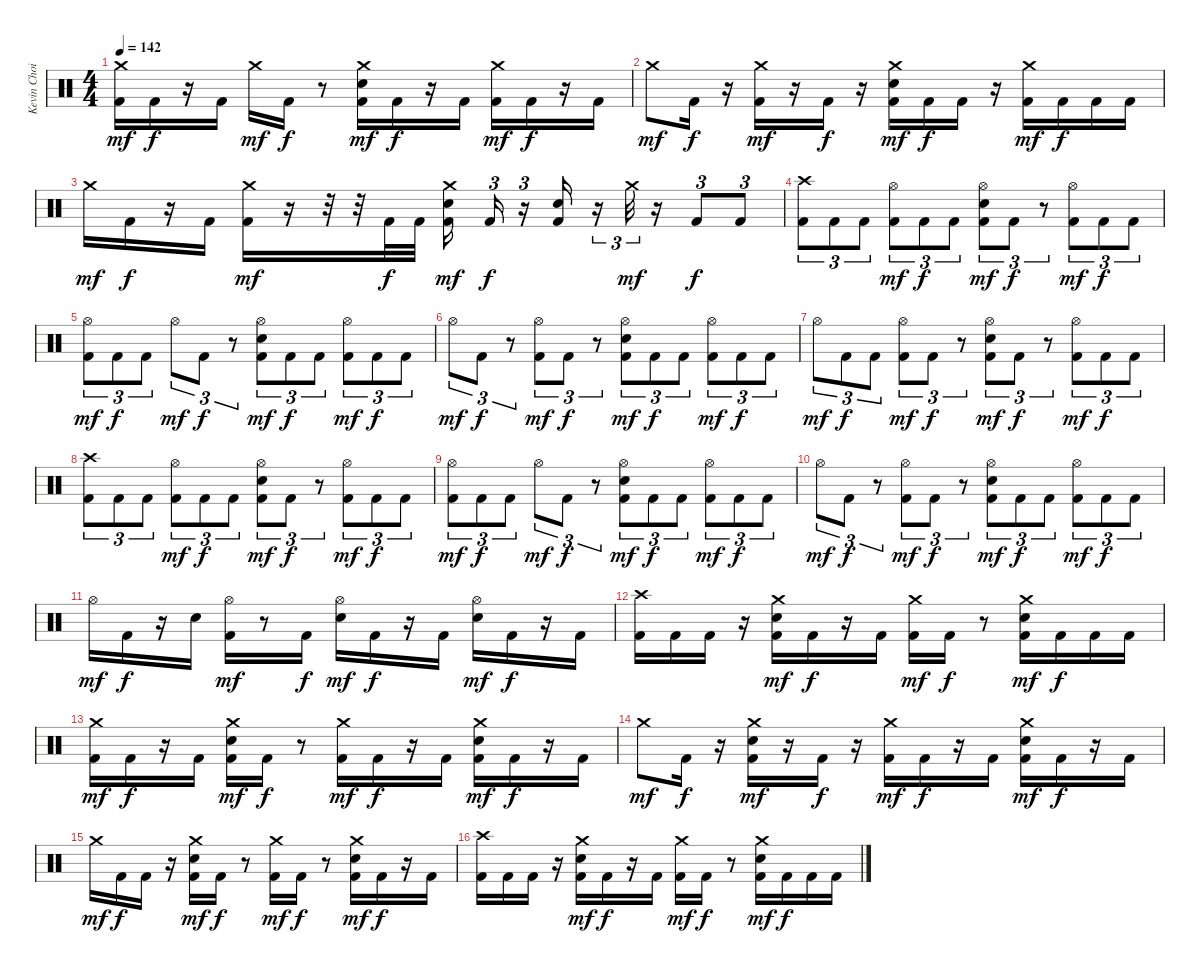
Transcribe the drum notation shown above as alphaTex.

\track ("Kevin Choiral" "Kevin Choi") {instrument percussion}
\staff
\articulation defaults
\ts (4 4)
\tempo 142
\clef neutral
\ks c
("Crash medium (hit)" "Kick (hit) 2").16{dy mf} "Kick (hit) 2".16{dy f} r.16 "Kick (hit) 2".16 "Crash medium (hit)".16{dy mf} "Kick (hit) 2".16{dy f} r.8 ("Crash medium (hit)" "Electric Snare (hit)" "Kick (hit) 2").16{dy mf} "Kick (hit) 2".16{dy f} r.16 "Kick (hit) 2".16 ("Crash medium (hit)" "Kick (hit) 2").16{dy mf} "Kick (hit) 2".16{dy f} r.16 "Kick (hit) 2".16 |
"Crash medium (hit)".8{dy mf} "Kick (hit) 2".16{dy f} r.16 ("Crash medium (hit)" "Kick (hit) 2").16{dy mf} r.16 "Kick (hit) 2".16{dy f} r.16 ("Crash medium (hit)" "Electric Snare (hit)" "Kick (hit) 2").16{dy mf} "Kick (hit) 2".16{dy f} "Kick (hit) 2".16 r.16 ("Crash medium (hit)" "Kick (hit) 2").16{dy mf} "Kick (hit) 2".16{dy f} "Kick (hit) 2".16 "Kick (hit) 2".16 |
"Crash medium (hit)".16{dy mf} "Kick (hit) 2".16{dy f} r.16 "Kick (hit) 2".16 ("Crash medium (hit)" "Kick (hit) 2").16{dy mf} r.16 r.32 r.32 "Kick (hit) 2".32{dy f} "Kick (hit) 2".32 ("Crash medium (hit)" "Electric Snare (hit)" "Kick (hit) 2").16{dy mf} "Kick (hit) 2".16{tu (3 2) dy f} r.16{tu (3 2)} ("Electric Snare (hit)" "Kick (hit) 2").16 r.16{tu (3 2)} "Crash medium (hit)".32{tu (3 2) dy mf} r.16 "Kick (hit) 2".8{tu (3 2) dy f} "Kick (hit) 2".8{tu (3 2)} |
("Crash high (hit)" "Kick (hit) 2").8{tu (3 2)} "Kick (hit) 2".8{tu (3 2)} "Kick (hit) 2".8{tu (3 2)} ("Hi-Hat (open)" "Kick (hit) 2").8{tu (3 2) dy mf} "Kick (hit) 2".8{tu (3 2) dy f} "Kick (hit) 2".8{tu (3 2)} ("Hi-Hat (open)" "Electric Snare (hit)" "Kick (hit) 2").8{tu (3 2) dy mf} "Kick (hit) 2".8{tu (3 2) dy f} r.8{tu (3 2)} ("Hi-Hat (open)" "Kick (hit) 2").8{tu (3 2) dy mf} "Kick (hit) 2".8{tu (3 2) dy f} "Kick (hit) 2".8{tu (3 2)} |
("Hi-Hat (open)" "Kick (hit) 2").8{tu (3 2) dy mf} "Kick (hit) 2".8{tu (3 2) dy f} "Kick (hit) 2".8{tu (3 2)} "Hi-Hat (open)".8{tu (3 2) dy mf} "Kick (hit) 2".8{tu (3 2) dy f} r.8{tu (3 2)} ("Hi-Hat (open)" "Electric Snare (hit)" "Kick (hit) 2").8{tu (3 2) dy mf} "Kick (hit) 2".8{tu (3 2) dy f} "Kick (hit) 2".8{tu (3 2)} ("Hi-Hat (open)" "Kick (hit) 2").8{tu (3 2) dy mf} "Kick (hit) 2".8{tu (3 2) dy f} "Kick (hit) 2".8{tu (3 2)} |
"Hi-Hat (open)".8{tu (3 2) dy mf} "Kick (hit) 2".8{tu (3 2) dy f} r.8{tu (3 2)} ("Hi-Hat (open)" "Kick (hit) 2").8{tu (3 2) dy mf} "Kick (hit) 2".8{tu (3 2) dy f} r.8{tu (3 2)} ("Hi-Hat (open)" "Electric Snare (hit)" "Kick (hit) 2").8{tu (3 2) dy mf} "Kick (hit) 2".8{tu (3 2) dy f} "Kick (hit) 2".8{tu (3 2)} ("Hi-Hat (open)" "Kick (hit) 2").8{tu (3 2) dy mf} "Kick (hit) 2".8{tu (3 2) dy f} "Kick (hit) 2".8{tu (3 2)} |
"Hi-Hat (open)".8{tu (3 2) dy mf} "Kick (hit) 2".8{tu (3 2) dy f} "Kick (hit) 2".8{tu (3 2)} ("Hi-Hat (open)" "Kick (hit) 2").8{tu (3 2) dy mf} "Kick (hit) 2".8{tu (3 2) dy f} r.8{tu (3 2)} ("Hi-Hat (open)" "Electric Snare (hit)" "Kick (hit) 2").8{tu (3 2) dy mf} "Kick (hit) 2".8{tu (3 2) dy f} r.8{tu (3 2)} ("Hi-Hat (open)" "Kick (hit) 2").8{tu (3 2) dy mf} "Kick (hit) 2".8{tu (3 2) dy f} "Kick (hit) 2".8{tu (3 2)} |
("Crash high (hit)" "Kick (hit) 2").8{tu (3 2)} "Kick (hit) 2".8{tu (3 2)} "Kick (hit) 2".8{tu (3 2)} ("Hi-Hat (open)" "Kick (hit) 2").8{tu (3 2) dy mf} "Kick (hit) 2".8{tu (3 2) dy f} "Kick (hit) 2".8{tu (3 2)} ("Hi-Hat (open)" "Electric Snare (hit)" "Kick (hit) 2").8{tu (3 2) dy mf} "Kick (hit) 2".8{tu (3 2) dy f} r.8{tu (3 2)} ("Hi-Hat (open)" "Kick (hit) 2").8{tu (3 2) dy mf} "Kick (hit) 2".8{tu (3 2) dy f} "Kick (hit) 2".8{tu (3 2)} |
("Hi-Hat (open)" "Kick (hit) 2").8{tu (3 2) dy mf} "Kick (hit) 2".8{tu (3 2) dy f} "Kick (hit) 2".8{tu (3 2)} "Hi-Hat (open)".8{tu (3 2) dy mf} "Kick (hit) 2".8{tu (3 2) dy f} r.8{tu (3 2)} ("Hi-Hat (open)" "Electric Snare (hit)" "Kick (hit) 2").8{tu (3 2) dy mf} "Kick (hit) 2".8{tu (3 2) dy f} "Kick (hit) 2".8{tu (3 2)} ("Hi-Hat (open)" "Kick (hit) 2").8{tu (3 2) dy mf} "Kick (hit) 2".8{tu (3 2) dy f} "Kick (hit) 2".8{tu (3 2)} |
"Hi-Hat (open)".8{tu (3 2) dy mf} "Kick (hit) 2".8{tu (3 2) dy f} r.8{tu (3 2)} ("Hi-Hat (open)" "Kick (hit) 2").8{tu (3 2) dy mf} "Kick (hit) 2".8{tu (3 2) dy f} r.8{tu (3 2)} ("Hi-Hat (open)" "Electric Snare (hit)" "Kick (hit) 2").8{tu (3 2) dy mf} "Kick (hit) 2".8{tu (3 2) dy f} "Kick (hit) 2".8{tu (3 2)} ("Hi-Hat (open)" "Kick (hit) 2").8{tu (3 2) dy mf} "Kick (hit) 2".8{tu (3 2) dy f} "Kick (hit) 2".8{tu (3 2)} |
"Hi-Hat (open)".16{dy mf} "Kick (hit) 2".16{dy f} r.16 "Electric Snare (hit)".16 ("Hi-Hat (open)" "Kick (hit) 2").16{dy mf} r.8 "Kick (hit) 2".16{dy f} ("Hi-Hat (open)" "Electric Snare (hit)").16{dy mf} "Kick (hit) 2".16{dy f} r.16 "Kick (hit) 2".16 ("Hi-Hat (open)" "Electric Snare (hit)").16{dy mf} "Kick (hit) 2".16{dy f} r.16 "Kick (hit) 2".16 |
("Crash high (hit)" "Kick (hit) 2").16 "Kick (hit) 2".16 "Kick (hit) 2".16 r.16 ("Crash medium (hit)" "Electric Snare (hit)" "Kick (hit) 2").16{dy mf} "Kick (hit) 2".16{dy f} r.16 "Kick (hit) 2".16 ("Crash medium (hit)" "Kick (hit) 2").16{dy mf} "Kick (hit) 2".16{dy f} r.8 ("Crash medium (hit)" "Electric Snare (hit)" "Kick (hit) 2").16{dy mf} "Kick (hit) 2".16{dy f} "Kick (hit) 2".16 "Kick (hit) 2".16 |
("Crash medium (hit)" "Kick (hit) 2").16{dy mf} "Kick (hit) 2".16{dy f} r.16 "Kick (hit) 2".16 ("Crash medium (hit)" "Electric Snare (hit)" "Kick (hit) 2").16{dy mf} "Kick (hit) 2".16{dy f} r.8 ("Crash medium (hit)" "Kick (hit) 2").16{dy mf} "Kick (hit) 2".16{dy f} r.16 "Kick (hit) 2".16 ("Crash medium (hit)" "Electric Snare (hit)" "Kick (hit) 2").16{dy mf} "Kick (hit) 2".16{dy f} r.16 "Kick (hit) 2".16 |
"Crash medium (hit)".8{dy mf} "Kick (hit) 2".16{dy f} r.16 ("Crash medium (hit)" "Electric Snare (hit)" "Kick (hit) 2").16{dy mf} r.16 "Kick (hit) 2".16{dy f} r.16 ("Crash medium (hit)" "Kick (hit) 2").16{dy mf} "Kick (hit) 2".16{dy f} r.16 "Kick (hit) 2".16 ("Crash medium (hit)" "Electric Snare (hit)" "Kick (hit) 2").16{dy mf} "Kick (hit) 2".16{dy f} r.16 "Kick (hit) 2".16 |
"Crash medium (hit)".16{dy mf} "Kick (hit) 2".16{dy f} "Kick (hit) 2".16 r.16 ("Crash medium (hit)" "Electric Snare (hit)" "Kick (hit) 2").16{dy mf} "Kick (hit) 2".16{dy f} r.8 ("Crash medium (hit)" "Kick (hit) 2").16{dy mf} "Kick (hit) 2".16{dy f} r.8 ("Crash medium (hit)" "Electric Snare (hit)" "Kick (hit) 2").16{dy mf} "Kick (hit) 2".16{dy f} r.16 "Kick (hit) 2".16 |
("Crash high (hit)" "Kick (hit) 2").16 "Kick (hit) 2".16 "Kick (hit) 2".16 r.16 ("Crash medium (hit)" "Electric Snare (hit)" "Kick (hit) 2").16{dy mf} "Kick (hit) 2".16{dy f} r.16 "Kick (hit) 2".16 ("Crash medium (hit)" "Kick (hit) 2").16{dy mf} "Kick (hit) 2".16{dy f} r.8 ("Crash medium (hit)" "Electric Snare (hit)" "Kick (hit) 2").16{dy mf} "Kick (hit) 2".16{dy f} "Kick (hit) 2".16 "Kick (hit) 2".16
